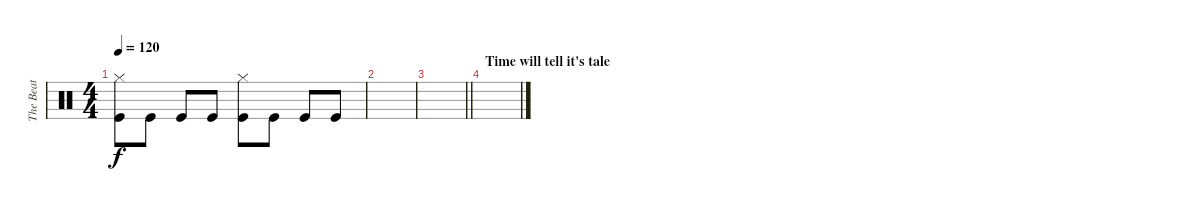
\track ("The Beat" "The Beat") {instrument percussion}
\staff {score}
\articulation defaults
\ts (4 4)
\tempo 120
\clef neutral
\ks c
("Kick (hit)" "Hi-Hat (closed)").8{dy f} "Kick (hit)".8 "Kick (hit)".8 "Kick (hit)".8 ("Kick (hit)" "Hi-Hat (closed)").8 "Kick (hit)".8 "Kick (hit)".8 "Kick (hit)".8 |
|
\barLineRight lightlight
|
\section ("" "Time will tell it's tale")
